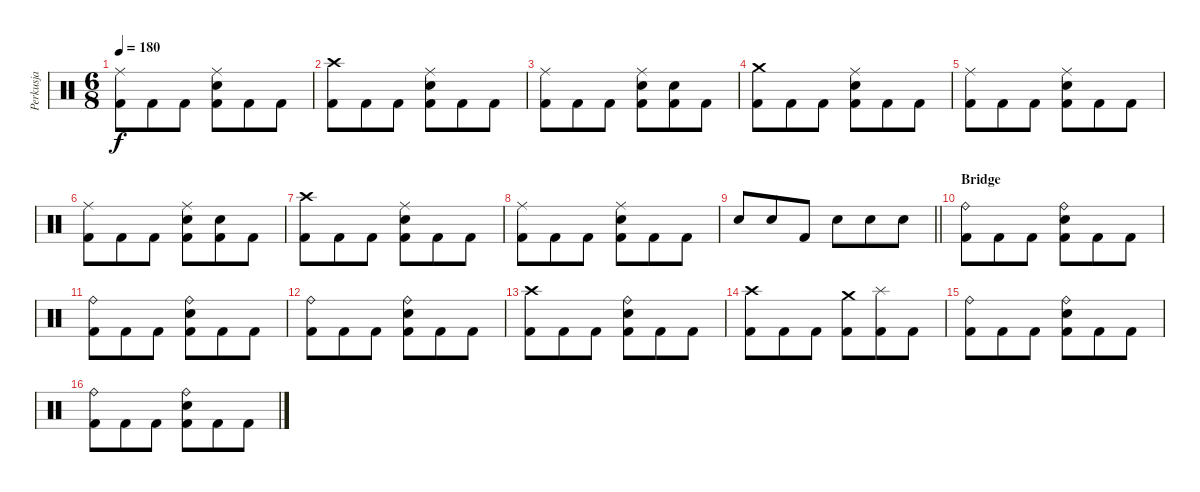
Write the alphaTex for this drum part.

\track ("Perkusja" "Perkusja") {instrument percussion}
\staff {score}
\articulation defaults
\ts (6 8)
\tempo 180
\clef neutral
\ks c
("Ride (middle)" "Kick (hit) 2").8{dy f} "Kick (hit) 2".8 "Kick (hit) 2".8 ("Ride (middle)" "Snare (hit) 2" "Kick (hit) 2").8 "Kick (hit) 2".8 "Kick (hit) 2".8 |
("Crash high (hit)" "Kick (hit) 2").8 "Kick (hit) 2".8 "Kick (hit) 2".8 ("Ride (middle)" "Snare (hit) 2" "Kick (hit) 2").8 "Kick (hit) 2".8 "Kick (hit) 2".8 |
("Ride (middle)" "Kick (hit) 2").8 "Kick (hit) 2".8 "Kick (hit) 2".8 ("Ride (middle)" "Snare (hit) 2" "Kick (hit) 2").8 ("Snare (hit) 2" "Kick (hit) 2").8 "Kick (hit) 2".8 |
("Crash medium (hit)" "Kick (hit) 2").8 "Kick (hit) 2".8 "Kick (hit) 2".8 ("Ride (middle)" "Snare (hit) 2" "Kick (hit) 2").8 "Kick (hit) 2".8 "Kick (hit) 2".8 |
("Ride (middle)" "Kick (hit) 2").8 "Kick (hit) 2".8 "Kick (hit) 2".8 ("Ride (middle)" "Snare (hit) 2" "Kick (hit) 2").8 "Kick (hit) 2".8 "Kick (hit) 2".8 |
("Ride (middle)" "Kick (hit) 2").8 "Kick (hit) 2".8 "Kick (hit) 2".8 ("Ride (middle)" "Snare (hit) 2" "Kick (hit) 2").8 ("Snare (hit) 2" "Kick (hit) 2").8 "Kick (hit) 2".8 |
("Crash high (hit)" "Kick (hit) 2").8 "Kick (hit) 2".8 "Kick (hit) 2".8 ("Ride (middle)" "Snare (hit) 2" "Kick (hit) 2").8 "Kick (hit) 2".8 "Kick (hit) 2".8 |
("Ride (middle)" "Kick (hit) 2").8 "Kick (hit) 2".8 "Kick (hit) 2".8 ("Ride (middle)" "Snare (hit) 2" "Kick (hit) 2").8 "Kick (hit) 2".8 "Kick (hit) 2".8 |
\barLineRight lightlight "Snare (hit) 2".8 "Snare (hit) 2".8 "Kick (hit) 2".8 "Snare (hit) 2".8 "Snare (hit) 2".8 "Snare (hit) 2".8
|
\section ("" "Bridge")
("Ride (bell)" "Kick (hit) 2").8 "Kick (hit) 2".8 "Kick (hit) 2".8 ("Ride (bell)" "Snare (hit) 2" "Kick (hit) 2").8 "Kick (hit) 2".8 "Kick (hit) 2".8 |
("Ride (bell)" "Kick (hit) 2").8 "Kick (hit) 2".8 "Kick (hit) 2".8 ("Ride (bell)" "Snare (hit) 2" "Kick (hit) 2").8 "Kick (hit) 2".8 "Kick (hit) 2".8 |
("Ride (bell)" "Kick (hit) 2").8 "Kick (hit) 2".8 "Kick (hit) 2".8 ("Ride (bell)" "Snare (hit) 2" "Kick (hit) 2").8 "Kick (hit) 2".8 "Kick (hit) 2".8 |
("Crash high (hit)" "Kick (hit) 2").8 "Kick (hit) 2".8 "Kick (hit) 2".8 ("Ride (bell)" "Snare (hit) 2" "Kick (hit) 2").8 "Kick (hit) 2".8 "Kick (hit) 2".8 |
("Crash high (hit)" "Kick (hit) 2").8 "Kick (hit) 2".8 "Kick (hit) 2".8 ("Crash medium (hit)" "Kick (hit) 2").8 ("Splash (hit)" "Kick (hit) 2").8 "Kick (hit) 2".8 |
("Ride (bell)" "Kick (hit) 2").8 "Kick (hit) 2".8 "Kick (hit) 2".8 ("Ride (bell)" "Snare (hit) 2" "Kick (hit) 2").8 "Kick (hit) 2".8 "Kick (hit) 2".8 |
("Ride (bell)" "Kick (hit) 2").8 "Kick (hit) 2".8 "Kick (hit) 2".8 ("Ride (bell)" "Snare (hit) 2" "Kick (hit) 2").8 "Kick (hit) 2".8 "Kick (hit) 2".8
